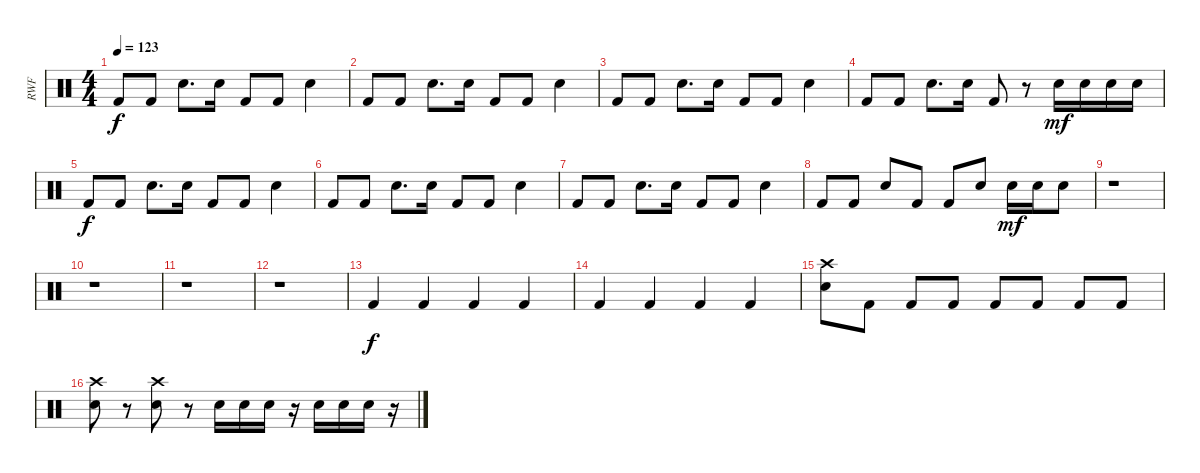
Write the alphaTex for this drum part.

\track ("RWF" "RWF") {instrument percussion}
\staff {score}
\articulation defaults
\ts (4 4)
\tempo 123
\clef neutral
\ks c "Kick (hit) 2".8{dy f} "Kick (hit) 2".8 "Electric Snare (hit)".8{d} "Electric Snare (hit)".16 "Kick (hit) 2".8 "Kick (hit) 2".8 "Electric Snare (hit)".4
|
"Kick (hit) 2".8 "Kick (hit) 2".8 "Electric Snare (hit)".8{d} "Electric Snare (hit)".16 "Kick (hit) 2".8 "Kick (hit) 2".8 "Electric Snare (hit)".4 |
"Kick (hit) 2".8 "Kick (hit) 2".8 "Electric Snare (hit)".8{d} "Electric Snare (hit)".16 "Kick (hit) 2".8 "Kick (hit) 2".8 "Electric Snare (hit)".4 |
"Kick (hit) 2".8 "Kick (hit) 2".8 "Electric Snare (hit)".8{d} "Electric Snare (hit)".16 "Kick (hit) 2".8 r.8 "Electric Snare (hit)".16{dy mf} "Electric Snare (hit)".16 "Electric Snare (hit)".16 "Electric Snare (hit)".16 |
"Kick (hit) 2".8{dy f} "Kick (hit) 2".8 "Electric Snare (hit)".8{d} "Electric Snare (hit)".16 "Kick (hit) 2".8 "Kick (hit) 2".8 "Electric Snare (hit)".4 |
"Kick (hit) 2".8 "Kick (hit) 2".8 "Electric Snare (hit)".8{d} "Electric Snare (hit)".16 "Kick (hit) 2".8 "Kick (hit) 2".8 "Electric Snare (hit)".4 |
"Kick (hit) 2".8 "Kick (hit) 2".8 "Electric Snare (hit)".8{d} "Electric Snare (hit)".16 "Kick (hit) 2".8 "Kick (hit) 2".8 "Electric Snare (hit)".4 |
"Kick (hit) 2".8 "Kick (hit) 2".8 "Electric Snare (hit)".8 "Kick (hit) 2".8 "Kick (hit) 2".8 "Electric Snare (hit)".8 "Electric Snare (hit)".16{dy mf} "Electric Snare (hit)".16 "Electric Snare (hit)".8 |
r.1 |
r.1 |
r.1 |
r.1 |
"Kick (hit) 2".4{dy f} "Kick (hit) 2".4 "Kick (hit) 2".4 "Kick (hit) 2".4 |
"Kick (hit) 2".4 "Kick (hit) 2".4 "Kick (hit) 2".4 "Kick (hit) 2".4 |
("Electric Snare (hit)" "Crash high (hit)").8 "Kick (hit) 2".8 "Kick (hit) 2".8 "Kick (hit) 2".8 "Kick (hit) 2".8 "Kick (hit) 2".8 "Kick (hit) 2".8 "Kick (hit) 2".8 |
("Electric Snare (hit)" "Crash high (hit)").8 r.8 ("Electric Snare (hit)" "Crash high (hit)").8 r.8 "Electric Snare (hit)".16 "Electric Snare (hit)".16 "Electric Snare (hit)".16 r.16 "Electric Snare (hit)".16 "Electric Snare (hit)".16 "Electric Snare (hit)".16 r.16
